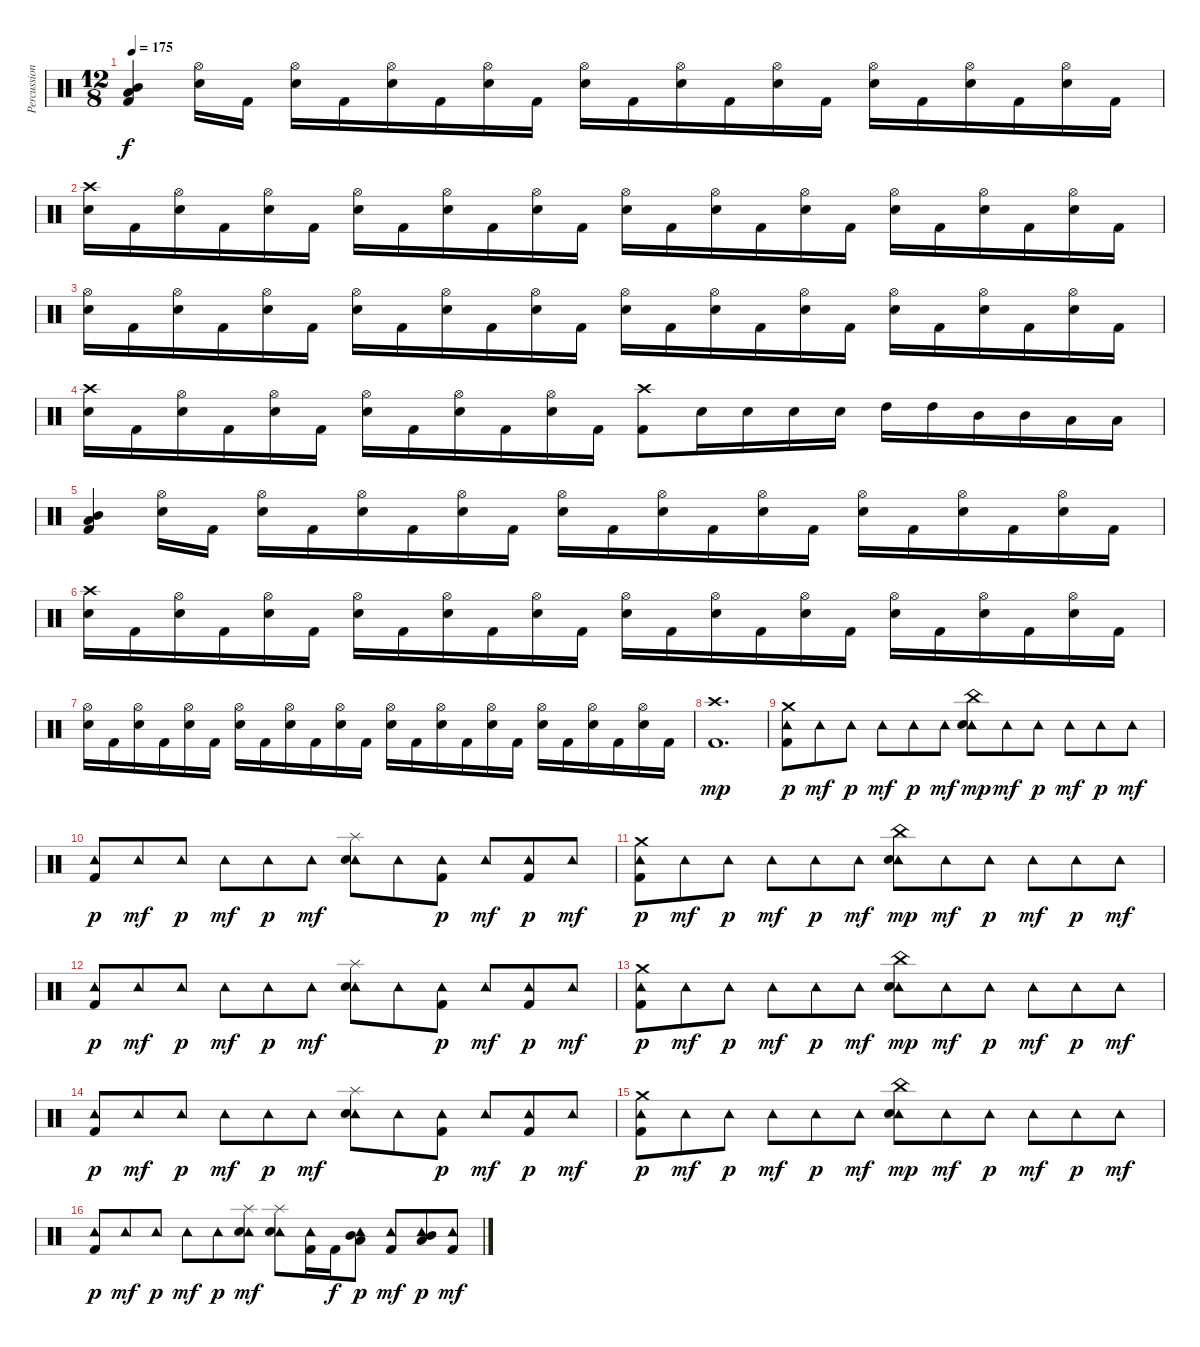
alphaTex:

\track ("Percussion" "Percussion") {instrument percussion}
\staff {score}
\articulation defaults
\ts (12 8)
\tempo 175
\clef neutral
\ks c
("Mid Tom (hit)" "Low Tom (hit)" "Kick (hit) 2").4{dy f} ("Hi-Hat (open)" "Electric Snare (hit)").16 "Kick (hit) 2".16 ("Hi-Hat (open)" "Electric Snare (hit)").16 "Kick (hit) 2".16 ("Hi-Hat (open)" "Electric Snare (hit)").16 "Kick (hit) 2".16 ("Hi-Hat (open)" "Electric Snare (hit)").16 "Kick (hit) 2".16 ("Hi-Hat (open)" "Electric Snare (hit)").16 "Kick (hit) 2".16 ("Hi-Hat (open)" "Electric Snare (hit)").16 "Kick (hit) 2".16 ("Hi-Hat (open)" "Electric Snare (hit)").16 "Kick (hit) 2".16 ("Hi-Hat (open)" "Electric Snare (hit)").16 "Kick (hit) 2".16 ("Hi-Hat (open)" "Electric Snare (hit)").16 "Kick (hit) 2".16 ("Hi-Hat (open)" "Electric Snare (hit)").16 "Kick (hit) 2".16 |
("Crash high (hit)" "Electric Snare (hit)").16 "Kick (hit) 2".16 ("Hi-Hat (open)" "Electric Snare (hit)").16 "Kick (hit) 2".16 ("Hi-Hat (open)" "Electric Snare (hit)").16 "Kick (hit) 2".16 ("Hi-Hat (open)" "Electric Snare (hit)").16 "Kick (hit) 2".16 ("Hi-Hat (open)" "Electric Snare (hit)").16 "Kick (hit) 2".16 ("Hi-Hat (open)" "Electric Snare (hit)").16 "Kick (hit) 2".16 ("Hi-Hat (open)" "Electric Snare (hit)").16 "Kick (hit) 2".16 ("Hi-Hat (open)" "Electric Snare (hit)").16 "Kick (hit) 2".16 ("Hi-Hat (open)" "Electric Snare (hit)").16 "Kick (hit) 2".16 ("Hi-Hat (open)" "Electric Snare (hit)").16 "Kick (hit) 2".16 ("Hi-Hat (open)" "Electric Snare (hit)").16 "Kick (hit) 2".16 ("Hi-Hat (open)" "Electric Snare (hit)").16 "Kick (hit) 2".16 |
("Hi-Hat (open)" "Electric Snare (hit)").16 "Kick (hit) 2".16 ("Hi-Hat (open)" "Electric Snare (hit)").16 "Kick (hit) 2".16 ("Hi-Hat (open)" "Electric Snare (hit)").16 "Kick (hit) 2".16 ("Hi-Hat (open)" "Electric Snare (hit)").16 "Kick (hit) 2".16 ("Hi-Hat (open)" "Electric Snare (hit)").16 "Kick (hit) 2".16 ("Hi-Hat (open)" "Electric Snare (hit)").16 "Kick (hit) 2".16 ("Hi-Hat (open)" "Electric Snare (hit)").16 "Kick (hit) 2".16 ("Hi-Hat (open)" "Electric Snare (hit)").16 "Kick (hit) 2".16 ("Hi-Hat (open)" "Electric Snare (hit)").16 "Kick (hit) 2".16 ("Hi-Hat (open)" "Electric Snare (hit)").16 "Kick (hit) 2".16 ("Hi-Hat (open)" "Electric Snare (hit)").16 "Kick (hit) 2".16 ("Hi-Hat (open)" "Electric Snare (hit)").16 "Kick (hit) 2".16 |
("Crash high (hit)" "Electric Snare (hit)").16 "Kick (hit) 2".16 ("Hi-Hat (open)" "Electric Snare (hit)").16 "Kick (hit) 2".16 ("Hi-Hat (open)" "Electric Snare (hit)").16 "Kick (hit) 2".16 ("Hi-Hat (open)" "Electric Snare (hit)").16 "Kick (hit) 2".16 ("Hi-Hat (open)" "Electric Snare (hit)").16 "Kick (hit) 2".16 ("Hi-Hat (open)" "Electric Snare (hit)").16 "Kick (hit) 2".16 ("Crash high (hit)" "Kick (hit) 2").8 "Electric Snare (hit)".16 "Electric Snare (hit)".16 "Electric Snare (hit)".16 "Electric Snare (hit)".16 "High Tom (hit)".16 "High Tom (hit)".16 "Mid Tom (hit)".16 "Mid Tom (hit)".16 "Low Tom (hit)".16 "Low Tom (hit)".16 |
("Mid Tom (hit)" "Low Tom (hit)" "Kick (hit) 2").4 ("Hi-Hat (open)" "Electric Snare (hit)").16 "Kick (hit) 2".16 ("Hi-Hat (open)" "Electric Snare (hit)").16 "Kick (hit) 2".16 ("Hi-Hat (open)" "Electric Snare (hit)").16 "Kick (hit) 2".16 ("Hi-Hat (open)" "Electric Snare (hit)").16 "Kick (hit) 2".16 ("Hi-Hat (open)" "Electric Snare (hit)").16 "Kick (hit) 2".16 ("Hi-Hat (open)" "Electric Snare (hit)").16 "Kick (hit) 2".16 ("Hi-Hat (open)" "Electric Snare (hit)").16 "Kick (hit) 2".16 ("Hi-Hat (open)" "Electric Snare (hit)").16 "Kick (hit) 2".16 ("Hi-Hat (open)" "Electric Snare (hit)").16 "Kick (hit) 2".16 ("Hi-Hat (open)" "Electric Snare (hit)").16 "Kick (hit) 2".16 |
("Crash high (hit)" "Electric Snare (hit)").16 "Kick (hit) 2".16 ("Hi-Hat (open)" "Electric Snare (hit)").16 "Kick (hit) 2".16 ("Hi-Hat (open)" "Electric Snare (hit)").16 "Kick (hit) 2".16 ("Hi-Hat (open)" "Electric Snare (hit)").16 "Kick (hit) 2".16 ("Hi-Hat (open)" "Electric Snare (hit)").16 "Kick (hit) 2".16 ("Hi-Hat (open)" "Electric Snare (hit)").16 "Kick (hit) 2".16 ("Hi-Hat (open)" "Electric Snare (hit)").16 "Kick (hit) 2".16 ("Hi-Hat (open)" "Electric Snare (hit)").16 "Kick (hit) 2".16 ("Hi-Hat (open)" "Electric Snare (hit)").16 "Kick (hit) 2".16 ("Hi-Hat (open)" "Electric Snare (hit)").16 "Kick (hit) 2".16 ("Hi-Hat (open)" "Electric Snare (hit)").16 "Kick (hit) 2".16 ("Hi-Hat (open)" "Electric Snare (hit)").16 "Kick (hit) 2".16 |
("Hi-Hat (open)" "Electric Snare (hit)").16 "Kick (hit) 2".16 ("Hi-Hat (open)" "Electric Snare (hit)").16 "Kick (hit) 2".16 ("Hi-Hat (open)" "Electric Snare (hit)").16 "Kick (hit) 2".16 ("Hi-Hat (open)" "Electric Snare (hit)").16 "Kick (hit) 2".16 ("Hi-Hat (open)" "Electric Snare (hit)").16 "Kick (hit) 2".16 ("Hi-Hat (open)" "Electric Snare (hit)").16 "Kick (hit) 2".16 ("Hi-Hat (open)" "Electric Snare (hit)").16 "Kick (hit) 2".16 ("Hi-Hat (open)" "Electric Snare (hit)").16 "Kick (hit) 2".16 ("Hi-Hat (open)" "Electric Snare (hit)").16 "Kick (hit) 2".16 ("Hi-Hat (open)" "Electric Snare (hit)").16 "Kick (hit) 2".16 ("Hi-Hat (open)" "Electric Snare (hit)").16 "Kick (hit) 2".16 ("Hi-Hat (open)" "Electric Snare (hit)").16 "Kick (hit) 2".16 |
("Crash high (hit)" "Kick (hit) 2").1{d dy mp} |
("Tambourine (hit)" "Crash medium (hit)" "Kick (hit) 2").8{dy p} "Tambourine (hit)".8{dy mf} "Tambourine (hit)".8{dy p} "Tambourine (hit)".8{dy mf} "Tambourine (hit)".8{dy p} "Tambourine (hit)".8{dy mf} ("Tambourine (hit)" "China (hit)" "Electric Snare (hit)").8{dy mp} "Tambourine (hit)".8{dy mf} "Tambourine (hit)".8{dy p} "Tambourine (hit)".8{dy mf} "Tambourine (hit)".8{dy p} "Tambourine (hit)".8{dy mf} |
("Tambourine (hit)" "Kick (hit) 2").8{dy p} "Tambourine (hit)".8{dy mf} "Tambourine (hit)".8{dy p} "Tambourine (hit)".8{dy mf} "Tambourine (hit)".8{dy p} "Tambourine (hit)".8{dy mf} ("Tambourine (hit)" "Splash (hit)" "Electric Snare (hit)").8 "Tambourine (hit)".8 ("Tambourine (hit)" "Kick (hit) 2").8{dy p} "Tambourine (hit)".8{dy mf} ("Tambourine (hit)" "Kick (hit) 2").8{dy p} "Tambourine (hit)".8{dy mf} |
("Tambourine (hit)" "Crash medium (hit)" "Kick (hit) 2").8{dy p} "Tambourine (hit)".8{dy mf} "Tambourine (hit)".8{dy p} "Tambourine (hit)".8{dy mf} "Tambourine (hit)".8{dy p} "Tambourine (hit)".8{dy mf} ("Tambourine (hit)" "China (hit)" "Electric Snare (hit)").8{dy mp} "Tambourine (hit)".8{dy mf} "Tambourine (hit)".8{dy p} "Tambourine (hit)".8{dy mf} "Tambourine (hit)".8{dy p} "Tambourine (hit)".8{dy mf} |
("Tambourine (hit)" "Kick (hit) 2").8{dy p} "Tambourine (hit)".8{dy mf} "Tambourine (hit)".8{dy p} "Tambourine (hit)".8{dy mf} "Tambourine (hit)".8{dy p} "Tambourine (hit)".8{dy mf} ("Tambourine (hit)" "Splash (hit)" "Electric Snare (hit)").8 "Tambourine (hit)".8 ("Tambourine (hit)" "Kick (hit) 2").8{dy p} "Tambourine (hit)".8{dy mf} ("Tambourine (hit)" "Kick (hit) 2").8{dy p} "Tambourine (hit)".8{dy mf} |
("Tambourine (hit)" "Crash medium (hit)" "Kick (hit) 2").8{dy p} "Tambourine (hit)".8{dy mf} "Tambourine (hit)".8{dy p} "Tambourine (hit)".8{dy mf} "Tambourine (hit)".8{dy p} "Tambourine (hit)".8{dy mf} ("Tambourine (hit)" "China (hit)" "Electric Snare (hit)").8{dy mp} "Tambourine (hit)".8{dy mf} "Tambourine (hit)".8{dy p} "Tambourine (hit)".8{dy mf} "Tambourine (hit)".8{dy p} "Tambourine (hit)".8{dy mf} |
("Tambourine (hit)" "Kick (hit) 2").8{dy p} "Tambourine (hit)".8{dy mf} "Tambourine (hit)".8{dy p} "Tambourine (hit)".8{dy mf} "Tambourine (hit)".8{dy p} "Tambourine (hit)".8{dy mf} ("Tambourine (hit)" "Splash (hit)" "Electric Snare (hit)").8 "Tambourine (hit)".8 ("Tambourine (hit)" "Kick (hit) 2").8{dy p} "Tambourine (hit)".8{dy mf} ("Tambourine (hit)" "Kick (hit) 2").8{dy p} "Tambourine (hit)".8{dy mf} |
("Tambourine (hit)" "Crash medium (hit)" "Kick (hit) 2").8{dy p} "Tambourine (hit)".8{dy mf} "Tambourine (hit)".8{dy p} "Tambourine (hit)".8{dy mf} "Tambourine (hit)".8{dy p} "Tambourine (hit)".8{dy mf} ("Tambourine (hit)" "China (hit)" "Electric Snare (hit)").8{dy mp} "Tambourine (hit)".8{dy mf} "Tambourine (hit)".8{dy p} "Tambourine (hit)".8{dy mf} "Tambourine (hit)".8{dy p} "Tambourine (hit)".8{dy mf} |
("Tambourine (hit)" "Kick (hit) 2").8{dy p} "Tambourine (hit)".8{dy mf} "Tambourine (hit)".8{dy p} "Tambourine (hit)".8{dy mf} "Tambourine (hit)".8{dy p} ("Tambourine (hit)" "Splash (hit)" "Electric Snare (hit)").8{dy mf} ("Tambourine (hit)" "Splash (hit)" "Electric Snare (hit)").8 ("Tambourine (hit)" "Kick (hit) 2").16 "Kick (hit) 2".16{dy f} ("Tambourine (hit)" "Mid Tom (hit)" "Low Tom (hit)").8{dy p} ("Tambourine (hit)" "Kick (hit) 2").8{dy mf} ("Tambourine (hit)" "Mid Tom (hit)" "Low Tom (hit)").8{dy p} ("Tambourine (hit)" "Kick (hit) 2").8{dy mf}
